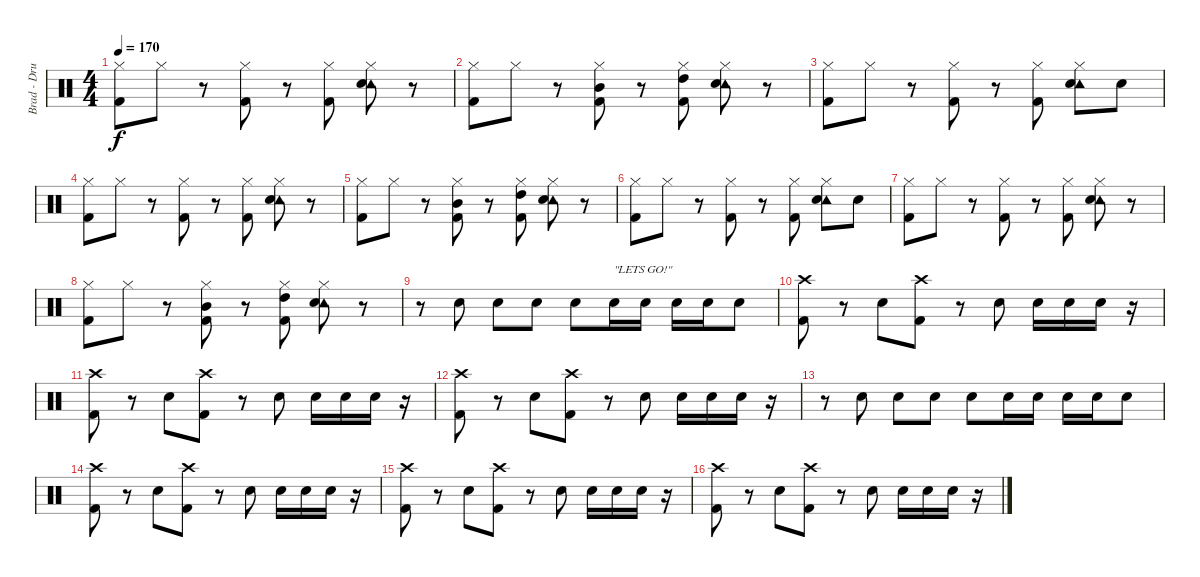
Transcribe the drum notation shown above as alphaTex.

\track ("Brad - Drums" "Brad - Dru") {instrument percussion}
\staff {score}
\articulation defaults
\ts (4 4)
\tempo 170
\clef neutral
\ks c
("Hi-Hat (closed)" "Kick (hit) 2").8{dy f} "Hi-Hat (closed)".8 r.8 ("Hi-Hat (closed)" "Kick (hit) 2").8 r.8 ("Hi-Hat (closed)" "Kick (hit) 2").8 ("Hi-Hat (closed)" "Tambourine (hit)" "Electric Snare (hit)").8 r.8 |
("Hi-Hat (closed)" "Kick (hit) 2").8 "Hi-Hat (closed)".8 r.8 ("Hi-Hat (closed)" "Mid Tom (hit)" "Kick (hit) 2").8 r.8 ("Hi-Hat (closed)" "High Tom (hit)" "Kick (hit) 2").8 ("Hi-Hat (closed)" "Tambourine (hit)" "Electric Snare (hit)").8 r.8 |
("Hi-Hat (closed)" "Kick (hit) 2").8 "Hi-Hat (closed)".8 r.8 ("Hi-Hat (closed)" "Kick (hit) 2").8 r.8 ("Hi-Hat (closed)" "Kick (hit) 2").8 ("Hi-Hat (closed)" "Tambourine (hit)" "Electric Snare (hit)").8 "Electric Snare (hit)".8 |
("Hi-Hat (closed)" "Kick (hit) 2").8 "Hi-Hat (closed)".8 r.8 ("Hi-Hat (closed)" "Kick (hit) 2").8 r.8 ("Hi-Hat (closed)" "Kick (hit) 2").8 ("Hi-Hat (closed)" "Tambourine (hit)" "Electric Snare (hit)").8 r.8 |
("Hi-Hat (closed)" "Kick (hit) 2").8 "Hi-Hat (closed)".8 r.8 ("Hi-Hat (closed)" "Mid Tom (hit)" "Kick (hit) 2").8 r.8 ("Hi-Hat (closed)" "High Tom (hit)" "Kick (hit) 2").8 ("Hi-Hat (closed)" "Tambourine (hit)" "Electric Snare (hit)").8 r.8 |
("Hi-Hat (closed)" "Kick (hit) 2").8 "Hi-Hat (closed)".8 r.8 ("Hi-Hat (closed)" "Kick (hit) 2").8 r.8 ("Hi-Hat (closed)" "Kick (hit) 2").8 ("Hi-Hat (closed)" "Tambourine (hit)" "Electric Snare (hit)").8 "Electric Snare (hit)".8 |
("Hi-Hat (closed)" "Kick (hit) 2").8 "Hi-Hat (closed)".8 r.8 ("Hi-Hat (closed)" "Kick (hit) 2").8 r.8 ("Hi-Hat (closed)" "Kick (hit) 2").8 ("Hi-Hat (closed)" "Tambourine (hit)" "Electric Snare (hit)").8 r.8 |
("Hi-Hat (closed)" "Kick (hit) 2").8 "Hi-Hat (closed)".8 r.8 ("Hi-Hat (closed)" "Mid Tom (hit)" "Kick (hit) 2").8 r.8 ("Hi-Hat (closed)" "High Tom (hit)" "Kick (hit) 2").8 ("Hi-Hat (closed)" "Tambourine (hit)" "Electric Snare (hit)").8 r.8 |
r.8 "Electric Snare (hit)".8 "Electric Snare (hit)".8 "Electric Snare (hit)".8 "Electric Snare (hit)".8 "Electric Snare (hit)".16{txt "\"LETS GO!\""} "Electric Snare (hit)".16 "Electric Snare (hit)".16 "Electric Snare (hit)".16 "Electric Snare (hit)".8 |
("Crash high (hit)" "Kick (hit) 2").8 r.8 "Electric Snare (hit)".8 ("Crash high (hit)" "Kick (hit) 2").8 r.8 "Electric Snare (hit)".8 "Electric Snare (hit)".16 "Electric Snare (hit)".16 "Electric Snare (hit)".16 r.16 |
("Crash high (hit)" "Kick (hit) 2").8 r.8 "Electric Snare (hit)".8 ("Crash high (hit)" "Kick (hit) 2").8 r.8 "Electric Snare (hit)".8 "Electric Snare (hit)".16 "Electric Snare (hit)".16 "Electric Snare (hit)".16 r.16 |
("Crash high (hit)" "Kick (hit) 2").8 r.8 "Electric Snare (hit)".8 ("Crash high (hit)" "Kick (hit) 2").8 r.8 "Electric Snare (hit)".8 "Electric Snare (hit)".16 "Electric Snare (hit)".16 "Electric Snare (hit)".16 r.16 |
r.8 "Electric Snare (hit)".8 "Electric Snare (hit)".8 "Electric Snare (hit)".8 "Electric Snare (hit)".8 "Electric Snare (hit)".16 "Electric Snare (hit)".16 "Electric Snare (hit)".16 "Electric Snare (hit)".16 "Electric Snare (hit)".8 |
("Crash high (hit)" "Kick (hit) 2").8 r.8 "Electric Snare (hit)".8 ("Crash high (hit)" "Kick (hit) 2").8 r.8 "Electric Snare (hit)".8 "Electric Snare (hit)".16 "Electric Snare (hit)".16 "Electric Snare (hit)".16 r.16 |
("Crash high (hit)" "Kick (hit) 2").8 r.8 "Electric Snare (hit)".8 ("Crash high (hit)" "Kick (hit) 2").8 r.8 "Electric Snare (hit)".8 "Electric Snare (hit)".16 "Electric Snare (hit)".16 "Electric Snare (hit)".16 r.16 |
("Crash high (hit)" "Kick (hit) 2").8 r.8 "Electric Snare (hit)".8 ("Crash high (hit)" "Kick (hit) 2").8 r.8 "Electric Snare (hit)".8 "Electric Snare (hit)".16 "Electric Snare (hit)".16 "Electric Snare (hit)".16 r.16
